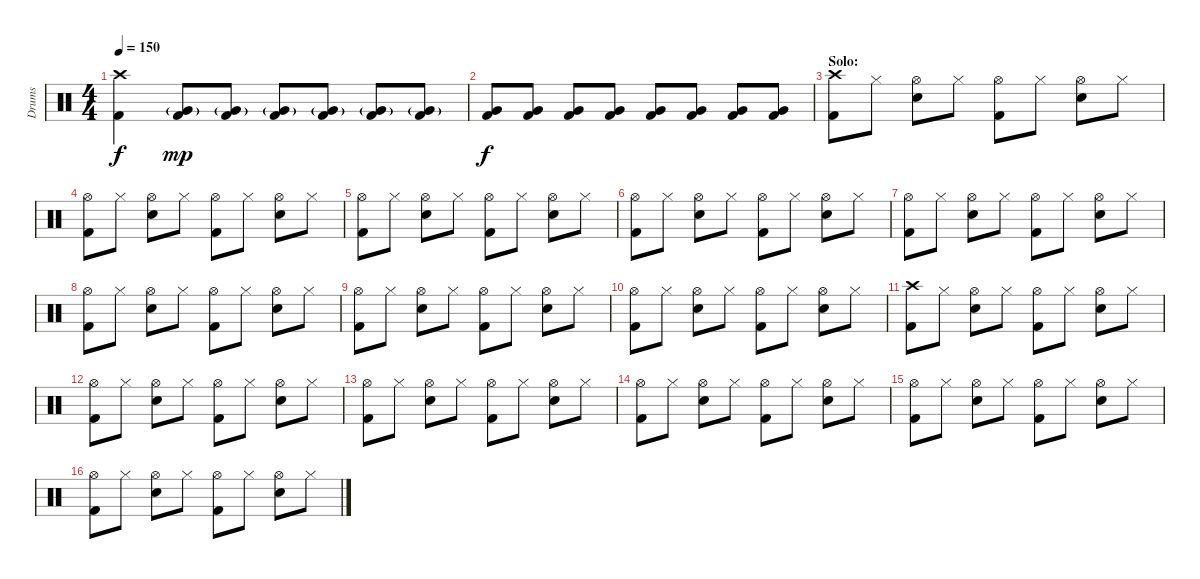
\track ("Drums" "Drums") {instrument percussion}
\staff {score}
\articulation defaults
\ts (4 4)
\tempo 150
\clef neutral
\ks c
("Crash high (hit)" "Kick (hit) 2").4{dy f} ("Very Low Tom (hit)"{g} "Kick (hit) 2").8{dy mp} ("Very Low Tom (hit)"{g} "Kick (hit) 2").8 ("Very Low Tom (hit)"{g} "Kick (hit) 2").8 ("Very Low Tom (hit)"{g} "Kick (hit) 2").8 ("Very Low Tom (hit)"{g} "Kick (hit) 2").8 ("Very Low Tom (hit)"{g} "Kick (hit) 2").8 |
("Very Low Tom (hit)" "Kick (hit) 2").8{dy f} ("Very Low Tom (hit)" "Kick (hit) 2").8 ("Very Low Tom (hit)" "Kick (hit) 2").8 ("Very Low Tom (hit)" "Kick (hit) 2").8 ("Very Low Tom (hit)" "Kick (hit) 2").8 ("Very Low Tom (hit)" "Kick (hit) 2").8 ("Very Low Tom (hit)" "Kick (hit) 2").8 ("Very Low Tom (hit)" "Kick (hit) 2").8 |
\section ("" "Solo:")
("Crash high (hit)" "Kick (hit) 2").8 "Hi-Hat (closed)".8 ("Hi-Hat (open)" "Snare (hit) 2").8 "Hi-Hat (closed)".8 ("Hi-Hat (open)" "Kick (hit) 2").8 "Hi-Hat (closed)".8 ("Hi-Hat (open)" "Snare (hit) 2").8 "Hi-Hat (closed)".8 |
("Hi-Hat (open)" "Kick (hit) 2").8 "Hi-Hat (closed)".8 ("Hi-Hat (open)" "Snare (hit) 2").8 "Hi-Hat (closed)".8 ("Hi-Hat (open)" "Kick (hit) 2").8 "Hi-Hat (closed)".8 ("Hi-Hat (open)" "Snare (hit) 2").8 "Hi-Hat (closed)".8 |
("Hi-Hat (open)" "Kick (hit) 2").8 "Hi-Hat (closed)".8 ("Hi-Hat (open)" "Snare (hit) 2").8 "Hi-Hat (closed)".8 ("Hi-Hat (open)" "Kick (hit) 2").8 "Hi-Hat (closed)".8 ("Hi-Hat (open)" "Snare (hit) 2").8 "Hi-Hat (closed)".8 |
("Hi-Hat (open)" "Kick (hit) 2").8 "Hi-Hat (closed)".8 ("Hi-Hat (open)" "Snare (hit) 2").8 "Hi-Hat (closed)".8 ("Hi-Hat (open)" "Kick (hit) 2").8 "Hi-Hat (closed)".8 ("Hi-Hat (open)" "Snare (hit) 2").8 "Hi-Hat (closed)".8 |
("Hi-Hat (open)" "Kick (hit) 2").8 "Hi-Hat (closed)".8 ("Hi-Hat (open)" "Snare (hit) 2").8 "Hi-Hat (closed)".8 ("Hi-Hat (open)" "Kick (hit) 2").8 "Hi-Hat (closed)".8 ("Hi-Hat (open)" "Snare (hit) 2").8 "Hi-Hat (closed)".8 |
("Hi-Hat (open)" "Kick (hit) 2").8 "Hi-Hat (closed)".8 ("Hi-Hat (open)" "Snare (hit) 2").8 "Hi-Hat (closed)".8 ("Hi-Hat (open)" "Kick (hit) 2").8 "Hi-Hat (closed)".8 ("Hi-Hat (open)" "Snare (hit) 2").8 "Hi-Hat (closed)".8 |
("Hi-Hat (open)" "Kick (hit) 2").8 "Hi-Hat (closed)".8 ("Hi-Hat (open)" "Snare (hit) 2").8 "Hi-Hat (closed)".8 ("Hi-Hat (open)" "Kick (hit) 2").8 "Hi-Hat (closed)".8 ("Hi-Hat (open)" "Snare (hit) 2").8 "Hi-Hat (closed)".8 |
("Hi-Hat (open)" "Kick (hit) 2").8 "Hi-Hat (closed)".8 ("Hi-Hat (open)" "Snare (hit) 2").8 "Hi-Hat (closed)".8 ("Hi-Hat (open)" "Kick (hit) 2").8 "Hi-Hat (closed)".8 ("Hi-Hat (open)" "Snare (hit) 2").8 "Hi-Hat (closed)".8 |
("Crash high (hit)" "Kick (hit) 2").8 "Hi-Hat (closed)".8 ("Hi-Hat (open)" "Snare (hit) 2").8 "Hi-Hat (closed)".8 ("Hi-Hat (open)" "Kick (hit) 2").8 "Hi-Hat (closed)".8 ("Hi-Hat (open)" "Snare (hit) 2").8 "Hi-Hat (closed)".8 |
("Hi-Hat (open)" "Kick (hit) 2").8 "Hi-Hat (closed)".8 ("Hi-Hat (open)" "Snare (hit) 2").8 "Hi-Hat (closed)".8 ("Hi-Hat (open)" "Kick (hit) 2").8 "Hi-Hat (closed)".8 ("Hi-Hat (open)" "Snare (hit) 2").8 "Hi-Hat (closed)".8 |
("Hi-Hat (open)" "Kick (hit) 2").8 "Hi-Hat (closed)".8 ("Hi-Hat (open)" "Snare (hit) 2").8 "Hi-Hat (closed)".8 ("Hi-Hat (open)" "Kick (hit) 2").8 "Hi-Hat (closed)".8 ("Hi-Hat (open)" "Snare (hit) 2").8 "Hi-Hat (closed)".8 |
("Hi-Hat (open)" "Kick (hit) 2").8 "Hi-Hat (closed)".8 ("Hi-Hat (open)" "Snare (hit) 2").8 "Hi-Hat (closed)".8 ("Hi-Hat (open)" "Kick (hit) 2").8 "Hi-Hat (closed)".8 ("Hi-Hat (open)" "Snare (hit) 2").8 "Hi-Hat (closed)".8 |
("Hi-Hat (open)" "Kick (hit) 2").8 "Hi-Hat (closed)".8 ("Hi-Hat (open)" "Snare (hit) 2").8 "Hi-Hat (closed)".8 ("Hi-Hat (open)" "Kick (hit) 2").8 "Hi-Hat (closed)".8 ("Hi-Hat (open)" "Snare (hit) 2").8 "Hi-Hat (closed)".8 |
("Hi-Hat (open)" "Kick (hit) 2").8 "Hi-Hat (closed)".8 ("Hi-Hat (open)" "Snare (hit) 2").8 "Hi-Hat (closed)".8 ("Hi-Hat (open)" "Kick (hit) 2").8 "Hi-Hat (closed)".8 ("Hi-Hat (open)" "Snare (hit) 2").8 "Hi-Hat (closed)".8
